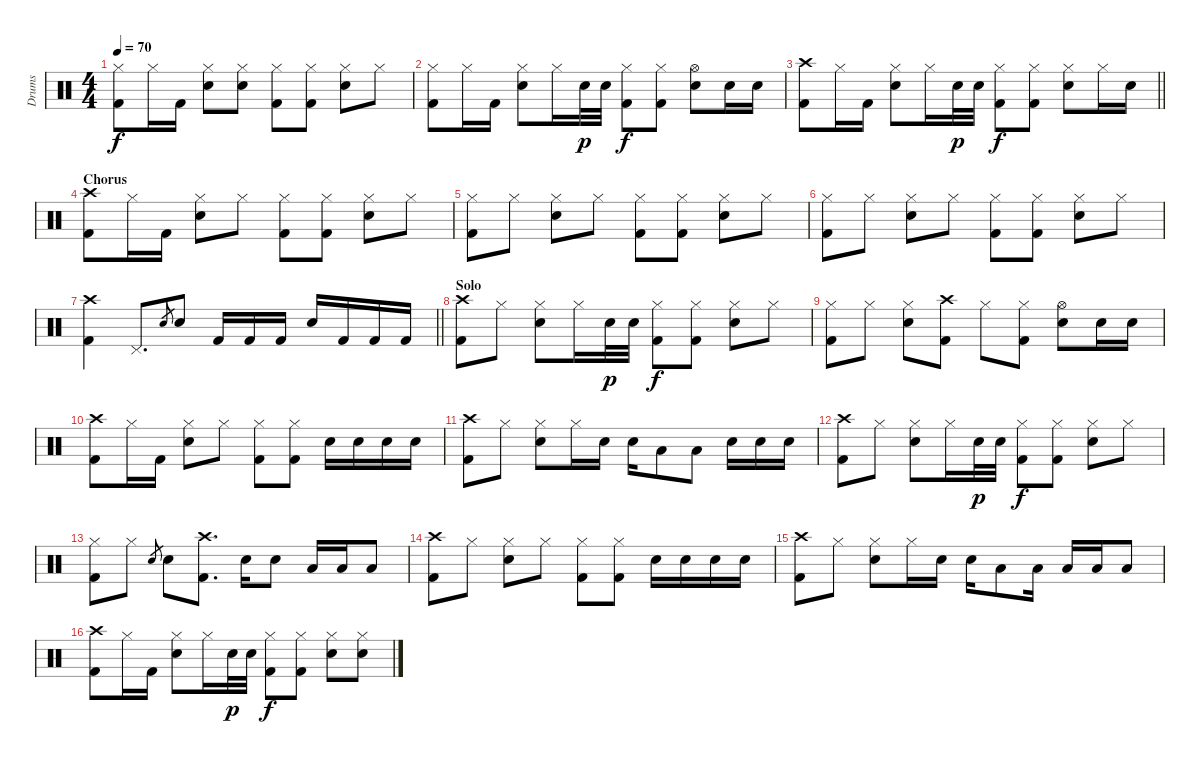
\track ("Drums" "Drums") {instrument percussion}
\staff {score}
\articulation defaults
\ts (4 4)
\tempo 70
\clef neutral
\ks c
("Hi-Hat (closed)" "Kick (hit) 2").8{dy f} "Hi-Hat (closed)".16 "Kick (hit) 2".16 ("Hi-Hat (closed)" "Electric Snare (hit)").8 ("Hi-Hat (closed)" "Electric Snare (hit)").8 ("Hi-Hat (closed)" "Kick (hit) 2").8 ("Hi-Hat (closed)" "Kick (hit) 2").8 ("Hi-Hat (closed)" "Electric Snare (hit)").8 "Hi-Hat (closed)".8 |
("Hi-Hat (closed)" "Kick (hit) 2").8 "Hi-Hat (closed)".16 "Kick (hit) 2".16 ("Hi-Hat (closed)" "Electric Snare (hit)").8 "Hi-Hat (closed)".16 "Electric Snare (hit)".32{dy p} "Electric Snare (hit)".32 ("Hi-Hat (closed)" "Kick (hit) 2").8{dy f} ("Hi-Hat (closed)" "Kick (hit) 2").8 ("Hi-Hat (open)" "Electric Snare (hit)").8 "Electric Snare (hit)".16 "Electric Snare (hit)".16 |
\barLineRight lightlight
("Crash high (hit)" "Kick (hit) 2").8 "Hi-Hat (closed)".16 "Kick (hit) 2".16 ("Hi-Hat (closed)" "Electric Snare (hit)").8 "Hi-Hat (closed)".16 "Electric Snare (hit)".32{dy p} "Electric Snare (hit)".32 ("Hi-Hat (closed)" "Kick (hit) 2").8{dy f} ("Hi-Hat (closed)" "Kick (hit) 2").8 ("Hi-Hat (closed)" "Electric Snare (hit)").8 "Hi-Hat (closed)".16 "Electric Snare (hit)".16 |
\section ("" "Chorus")
("Crash high (hit)" "Kick (hit) 2").8 "Hi-Hat (closed)".16 "Kick (hit) 2".16 ("Hi-Hat (closed)" "Electric Snare (hit)").8 "Hi-Hat (closed)".8 ("Hi-Hat (closed)" "Kick (hit) 2").8 ("Hi-Hat (closed)" "Kick (hit) 2").8 ("Hi-Hat (closed)" "Electric Snare (hit)").8 "Hi-Hat (closed)".8 |
("Hi-Hat (closed)" "Kick (hit) 2").8 "Hi-Hat (closed)".8 ("Hi-Hat (closed)" "Electric Snare (hit)").8 "Hi-Hat (closed)".8 ("Hi-Hat (closed)" "Kick (hit) 2").8 ("Hi-Hat (closed)" "Kick (hit) 2").8 ("Hi-Hat (closed)" "Electric Snare (hit)").8 "Hi-Hat (closed)".8 |
("Hi-Hat (closed)" "Kick (hit) 2").8 "Hi-Hat (closed)".8 ("Hi-Hat (closed)" "Electric Snare (hit)").8 "Hi-Hat (closed)".8 ("Hi-Hat (closed)" "Kick (hit) 2").8 ("Hi-Hat (closed)" "Kick (hit) 2").8 ("Hi-Hat (closed)" "Electric Snare (hit)").8 "Hi-Hat (closed)".8 |
\barLineRight lightlight
("Crash high (hit)" "Kick (hit) 2").4 "Pedal Hi-Hat (hit)".8{d} "Electric Snare (hit)".8{gr} "Electric Snare (hit)".8 "Kick (hit) 2".16 "Kick (hit) 2".16 "Kick (hit) 2".16 "Electric Snare (hit)".16 "Kick (hit) 2".16 "Kick (hit) 2".16 "Kick (hit) 2".16 |
\section ("" "Solo")
("Crash high (hit)" "Kick (hit) 2").8 "Hi-Hat (closed)".8 ("Hi-Hat (closed)" "Electric Snare (hit)").8 "Hi-Hat (closed)".16 "Electric Snare (hit)".32{dy p} "Electric Snare (hit)".32 ("Hi-Hat (closed)" "Kick (hit) 2").8{dy f} ("Hi-Hat (closed)" "Kick (hit) 2").8 ("Hi-Hat (closed)" "Electric Snare (hit)").8 "Hi-Hat (closed)".8 |
("Hi-Hat (closed)" "Kick (hit) 2").8 "Hi-Hat (closed)".8 ("Hi-Hat (closed)" "Electric Snare (hit)").8 ("Crash high (hit)" "Kick (hit) 2").8 "Hi-Hat (closed)".8 ("Hi-Hat (closed)" "Kick (hit) 2").8 ("Hi-Hat (open)" "Electric Snare (hit)").8 "Electric Snare (hit)".16 "Electric Snare (hit)".16 |
("Crash high (hit)" "Kick (hit) 2").8 "Hi-Hat (closed)".16 "Kick (hit) 2".16 ("Hi-Hat (closed)" "Electric Snare (hit)").8 "Hi-Hat (closed)".8 ("Hi-Hat (closed)" "Kick (hit) 2").8 ("Hi-Hat (closed)" "Kick (hit) 2").8 "Electric Snare (hit)".16 "Electric Snare (hit)".16 "Electric Snare (hit)".16 "Electric Snare (hit)".16 |
("Crash high (hit)" "Kick (hit) 2").8 "Hi-Hat (closed)".8 ("Hi-Hat (closed)" "Electric Snare (hit)").8 "Hi-Hat (closed)".16 "Electric Snare (hit)".16 "Electric Snare (hit)".16 "Low Tom (hit)".8 "Low Floor Tom (hit)".8 "Electric Snare (hit)".16 "Electric Snare (hit)".16 "Electric Snare (hit)".16 |
("Crash high (hit)" "Kick (hit) 2").8 "Hi-Hat (closed)".8 ("Hi-Hat (closed)" "Electric Snare (hit)").8 "Hi-Hat (closed)".16 "Electric Snare (hit)".32{dy p} "Electric Snare (hit)".32 ("Hi-Hat (closed)" "Kick (hit) 2").8{dy f} ("Hi-Hat (closed)" "Kick (hit) 2").8 ("Hi-Hat (closed)" "Electric Snare (hit)").8 "Hi-Hat (closed)".8 |
("Hi-Hat (closed)" "Kick (hit) 2").8 "Hi-Hat (closed)".8 "Electric Snare (hit)".8{gr} "Electric Snare (hit)".8 ("Crash high (hit)" "Kick (hit) 2").8{d} "Electric Snare (hit)".16 "Electric Snare (hit)".8 "Low Tom (hit)".16 "Low Tom (hit)".16 "Low Floor Tom (hit)".8 |
("Crash high (hit)" "Kick (hit) 2").8 "Hi-Hat (closed)".8 ("Hi-Hat (closed)" "Electric Snare (hit)").8 "Hi-Hat (closed)".8 ("Hi-Hat (closed)" "Kick (hit) 2").8 ("Hi-Hat (closed)" "Kick (hit) 2").8 "Electric Snare (hit)".16 "Electric Snare (hit)".16 "Electric Snare (hit)".16 "Electric Snare (hit)".16 |
("Crash high (hit)" "Kick (hit) 2").8 "Hi-Hat (closed)".8 ("Hi-Hat (closed)" "Electric Snare (hit)").8 "Hi-Hat (closed)".16 "Electric Snare (hit)".16 "Electric Snare (hit)".16 "Low Tom (hit)".8 "Low Tom (hit)".16 "Low Tom (hit)".16 "Low Tom (hit)".16 "Low Floor Tom (hit)".8 |
("Crash high (hit)" "Kick (hit) 2").8 "Hi-Hat (closed)".16 "Kick (hit) 2".16 ("Hi-Hat (closed)" "Electric Snare (hit)").8 "Hi-Hat (closed)".16 "Electric Snare (hit)".32{dy p} "Electric Snare (hit)".32 ("Hi-Hat (closed)" "Kick (hit) 2").8{dy f} ("Hi-Hat (closed)" "Kick (hit) 2").8 ("Hi-Hat (closed)" "Electric Snare (hit)").8 ("Hi-Hat (closed)" "Electric Snare (hit)").8
